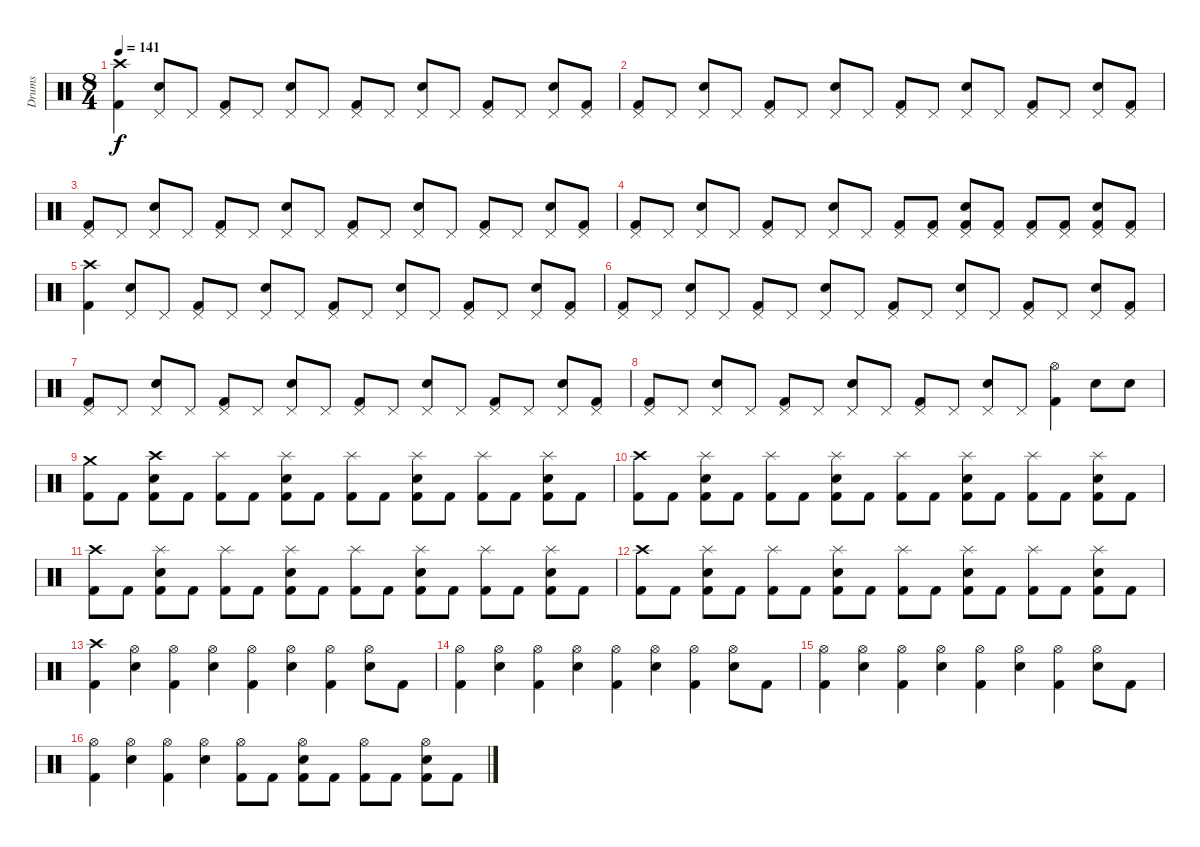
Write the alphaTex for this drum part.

\track ("Drums" "Drums") {instrument percussion}
\staff {score}
\articulation defaults
\ts (8 4)
\tempo 141
\clef neutral
\ks c
("Crash high (hit)" "Kick (hit) 2").4{dy f} ("Pedal Hi-Hat (hit)" "Snare (hit) 2").8 "Pedal Hi-Hat (hit)".8 ("Pedal Hi-Hat (hit)" "Kick (hit) 2").8 "Pedal Hi-Hat (hit)".8 ("Pedal Hi-Hat (hit)" "Snare (hit) 2").8 "Pedal Hi-Hat (hit)".8 ("Pedal Hi-Hat (hit)" "Kick (hit) 2").8 "Pedal Hi-Hat (hit)".8 ("Pedal Hi-Hat (hit)" "Snare (hit) 2").8 "Pedal Hi-Hat (hit)".8 ("Pedal Hi-Hat (hit)" "Kick (hit) 2").8 "Pedal Hi-Hat (hit)".8 ("Pedal Hi-Hat (hit)" "Snare (hit) 2").8 ("Pedal Hi-Hat (hit)" "Kick (hit) 2").8 |
("Pedal Hi-Hat (hit)" "Kick (hit) 2").8 "Pedal Hi-Hat (hit)".8 ("Pedal Hi-Hat (hit)" "Snare (hit) 2").8 "Pedal Hi-Hat (hit)".8 ("Pedal Hi-Hat (hit)" "Kick (hit) 2").8 "Pedal Hi-Hat (hit)".8 ("Pedal Hi-Hat (hit)" "Snare (hit) 2").8 "Pedal Hi-Hat (hit)".8 ("Pedal Hi-Hat (hit)" "Kick (hit) 2").8 "Pedal Hi-Hat (hit)".8 ("Pedal Hi-Hat (hit)" "Snare (hit) 2").8 "Pedal Hi-Hat (hit)".8 ("Pedal Hi-Hat (hit)" "Kick (hit) 2").8 "Pedal Hi-Hat (hit)".8 ("Pedal Hi-Hat (hit)" "Snare (hit) 2").8 ("Pedal Hi-Hat (hit)" "Kick (hit) 2").8 |
("Pedal Hi-Hat (hit)" "Kick (hit) 2").8 "Pedal Hi-Hat (hit)".8 ("Pedal Hi-Hat (hit)" "Snare (hit) 2").8 "Pedal Hi-Hat (hit)".8 ("Pedal Hi-Hat (hit)" "Kick (hit) 2").8 "Pedal Hi-Hat (hit)".8 ("Pedal Hi-Hat (hit)" "Snare (hit) 2").8 "Pedal Hi-Hat (hit)".8 ("Pedal Hi-Hat (hit)" "Kick (hit) 2").8 "Pedal Hi-Hat (hit)".8 ("Pedal Hi-Hat (hit)" "Snare (hit) 2").8 "Pedal Hi-Hat (hit)".8 ("Pedal Hi-Hat (hit)" "Kick (hit) 2").8 "Pedal Hi-Hat (hit)".8 ("Pedal Hi-Hat (hit)" "Snare (hit) 2").8 ("Pedal Hi-Hat (hit)" "Kick (hit) 2").8 |
("Pedal Hi-Hat (hit)" "Kick (hit) 2").8 "Pedal Hi-Hat (hit)".8 ("Pedal Hi-Hat (hit)" "Snare (hit) 2").8 "Pedal Hi-Hat (hit)".8 ("Pedal Hi-Hat (hit)" "Kick (hit) 2").8 "Pedal Hi-Hat (hit)".8 ("Pedal Hi-Hat (hit)" "Snare (hit) 2").8 "Pedal Hi-Hat (hit)".8 ("Pedal Hi-Hat (hit)" "Kick (hit) 2").8 ("Pedal Hi-Hat (hit)" "Kick (hit) 2").8 ("Pedal Hi-Hat (hit)" "Snare (hit) 2" "Kick (hit) 2").8 ("Pedal Hi-Hat (hit)" "Kick (hit) 2").8 ("Pedal Hi-Hat (hit)" "Kick (hit) 2").8 ("Pedal Hi-Hat (hit)" "Kick (hit) 2").8 ("Pedal Hi-Hat (hit)" "Snare (hit) 2" "Kick (hit) 2").8 ("Pedal Hi-Hat (hit)" "Kick (hit) 2").8 |
("Crash high (hit)" "Kick (hit) 2").4 ("Pedal Hi-Hat (hit)" "Snare (hit) 2").8 "Pedal Hi-Hat (hit)".8 ("Pedal Hi-Hat (hit)" "Kick (hit) 2").8 "Pedal Hi-Hat (hit)".8 ("Pedal Hi-Hat (hit)" "Snare (hit) 2").8 "Pedal Hi-Hat (hit)".8 ("Pedal Hi-Hat (hit)" "Kick (hit) 2").8 "Pedal Hi-Hat (hit)".8 ("Pedal Hi-Hat (hit)" "Snare (hit) 2").8 "Pedal Hi-Hat (hit)".8 ("Pedal Hi-Hat (hit)" "Kick (hit) 2").8 "Pedal Hi-Hat (hit)".8 ("Pedal Hi-Hat (hit)" "Snare (hit) 2").8 ("Pedal Hi-Hat (hit)" "Kick (hit) 2").8 |
("Pedal Hi-Hat (hit)" "Kick (hit) 2").8 "Pedal Hi-Hat (hit)".8 ("Pedal Hi-Hat (hit)" "Snare (hit) 2").8 "Pedal Hi-Hat (hit)".8 ("Pedal Hi-Hat (hit)" "Kick (hit) 2").8 "Pedal Hi-Hat (hit)".8 ("Pedal Hi-Hat (hit)" "Snare (hit) 2").8 "Pedal Hi-Hat (hit)".8 ("Pedal Hi-Hat (hit)" "Kick (hit) 2").8 "Pedal Hi-Hat (hit)".8 ("Pedal Hi-Hat (hit)" "Snare (hit) 2").8 "Pedal Hi-Hat (hit)".8 ("Pedal Hi-Hat (hit)" "Kick (hit) 2").8 "Pedal Hi-Hat (hit)".8 ("Pedal Hi-Hat (hit)" "Snare (hit) 2").8 ("Pedal Hi-Hat (hit)" "Kick (hit) 2").8 |
("Pedal Hi-Hat (hit)" "Kick (hit) 2").8 "Pedal Hi-Hat (hit)".8 ("Pedal Hi-Hat (hit)" "Snare (hit) 2").8 "Pedal Hi-Hat (hit)".8 ("Pedal Hi-Hat (hit)" "Kick (hit) 2").8 "Pedal Hi-Hat (hit)".8 ("Pedal Hi-Hat (hit)" "Snare (hit) 2").8 "Pedal Hi-Hat (hit)".8 ("Pedal Hi-Hat (hit)" "Kick (hit) 2").8 "Pedal Hi-Hat (hit)".8 ("Pedal Hi-Hat (hit)" "Snare (hit) 2").8 "Pedal Hi-Hat (hit)".8 ("Pedal Hi-Hat (hit)" "Kick (hit) 2").8 "Pedal Hi-Hat (hit)".8 ("Pedal Hi-Hat (hit)" "Snare (hit) 2").8 ("Pedal Hi-Hat (hit)" "Kick (hit) 2").8 |
("Pedal Hi-Hat (hit)" "Kick (hit) 2").8 "Pedal Hi-Hat (hit)".8 ("Pedal Hi-Hat (hit)" "Snare (hit) 2").8 "Pedal Hi-Hat (hit)".8 ("Pedal Hi-Hat (hit)" "Kick (hit) 2").8 "Pedal Hi-Hat (hit)".8 ("Pedal Hi-Hat (hit)" "Snare (hit) 2").8 "Pedal Hi-Hat (hit)".8 ("Pedal Hi-Hat (hit)" "Kick (hit) 2").8 "Pedal Hi-Hat (hit)".8 ("Pedal Hi-Hat (hit)" "Snare (hit) 2").8 "Pedal Hi-Hat (hit)".8 ("Hi-Hat (open)" "Kick (hit) 2").4 "Snare (hit) 2".8 "Snare (hit) 2".8 |
("Crash medium (hit)" "Kick (hit) 2").8 "Kick (hit) 2".8 ("Crash high (hit)" "Snare (hit) 2" "Kick (hit) 2").8 "Kick (hit) 2".8 ("Splash (hit)" "Kick (hit) 2").8 "Kick (hit) 2".8 ("Splash (hit)" "Snare (hit) 2" "Kick (hit) 2").8 "Kick (hit) 2".8 ("Splash (hit)" "Kick (hit) 2").8 "Kick (hit) 2".8 ("Splash (hit)" "Snare (hit) 2" "Kick (hit) 2").8 "Kick (hit) 2".8 ("Splash (hit)" "Kick (hit) 2").8 "Kick (hit) 2".8 ("Splash (hit)" "Snare (hit) 2" "Kick (hit) 2").8 "Kick (hit) 2".8 |
("Crash high (hit)" "Kick (hit) 2").8 "Kick (hit) 2".8 ("Splash (hit)" "Snare (hit) 2" "Kick (hit) 2").8 "Kick (hit) 2".8 ("Splash (hit)" "Kick (hit) 2").8 "Kick (hit) 2".8 ("Splash (hit)" "Snare (hit) 2" "Kick (hit) 2").8 "Kick (hit) 2".8 ("Splash (hit)" "Kick (hit) 2").8 "Kick (hit) 2".8 ("Splash (hit)" "Snare (hit) 2" "Kick (hit) 2").8 "Kick (hit) 2".8 ("Splash (hit)" "Kick (hit) 2").8 "Kick (hit) 2".8 ("Splash (hit)" "Snare (hit) 2" "Kick (hit) 2").8 "Kick (hit) 2".8 |
("Crash high (hit)" "Kick (hit) 2").8 "Kick (hit) 2".8 ("Splash (hit)" "Snare (hit) 2" "Kick (hit) 2").8 "Kick (hit) 2".8 ("Splash (hit)" "Kick (hit) 2").8 "Kick (hit) 2".8 ("Splash (hit)" "Snare (hit) 2" "Kick (hit) 2").8 "Kick (hit) 2".8 ("Splash (hit)" "Kick (hit) 2").8 "Kick (hit) 2".8 ("Splash (hit)" "Snare (hit) 2" "Kick (hit) 2").8 "Kick (hit) 2".8 ("Splash (hit)" "Kick (hit) 2").8 "Kick (hit) 2".8 ("Splash (hit)" "Snare (hit) 2" "Kick (hit) 2").8 "Kick (hit) 2".8 |
("Crash high (hit)" "Kick (hit) 2").8 "Kick (hit) 2".8 ("Splash (hit)" "Snare (hit) 2" "Kick (hit) 2").8 "Kick (hit) 2".8 ("Splash (hit)" "Kick (hit) 2").8 "Kick (hit) 2".8 ("Splash (hit)" "Snare (hit) 2" "Kick (hit) 2").8 "Kick (hit) 2".8 ("Splash (hit)" "Kick (hit) 2").8 "Kick (hit) 2".8 ("Splash (hit)" "Snare (hit) 2" "Kick (hit) 2").8 "Kick (hit) 2".8 ("Splash (hit)" "Kick (hit) 2").8 "Kick (hit) 2".8 ("Splash (hit)" "Snare (hit) 2" "Kick (hit) 2").8 "Kick (hit) 2".8 |
("Crash high (hit)" "Kick (hit) 2").4 ("Hi-Hat (open)" "Snare (hit) 2").4 ("Hi-Hat (open)" "Kick (hit) 2").4 ("Hi-Hat (open)" "Snare (hit) 2").4 ("Hi-Hat (open)" "Kick (hit) 2").4 ("Hi-Hat (open)" "Snare (hit) 2").4 ("Hi-Hat (open)" "Kick (hit) 2").4 ("Hi-Hat (open)" "Snare (hit) 2").8 "Kick (hit) 2".8 |
("Hi-Hat (open)" "Kick (hit) 2").4 ("Hi-Hat (open)" "Snare (hit) 2").4 ("Hi-Hat (open)" "Kick (hit) 2").4 ("Hi-Hat (open)" "Snare (hit) 2").4 ("Hi-Hat (open)" "Kick (hit) 2").4 ("Hi-Hat (open)" "Snare (hit) 2").4 ("Hi-Hat (open)" "Kick (hit) 2").4 ("Hi-Hat (open)" "Snare (hit) 2").8 "Kick (hit) 2".8 |
("Hi-Hat (open)" "Kick (hit) 2").4 ("Hi-Hat (open)" "Snare (hit) 2").4 ("Hi-Hat (open)" "Kick (hit) 2").4 ("Hi-Hat (open)" "Snare (hit) 2").4 ("Hi-Hat (open)" "Kick (hit) 2").4 ("Hi-Hat (open)" "Snare (hit) 2").4 ("Hi-Hat (open)" "Kick (hit) 2").4 ("Hi-Hat (open)" "Snare (hit) 2").8 "Kick (hit) 2".8 |
("Hi-Hat (open)" "Kick (hit) 2").4 ("Hi-Hat (open)" "Snare (hit) 2").4 ("Hi-Hat (open)" "Kick (hit) 2").4 ("Hi-Hat (open)" "Snare (hit) 2").4 ("Hi-Hat (open)" "Kick (hit) 2").8 "Kick (hit) 2".8 ("Hi-Hat (open)" "Snare (hit) 2" "Kick (hit) 2").8 "Kick (hit) 2".8 ("Hi-Hat (open)" "Kick (hit) 2").8 "Kick (hit) 2".8 ("Hi-Hat (open)" "Snare (hit) 2" "Kick (hit) 2").8 "Kick (hit) 2".8
